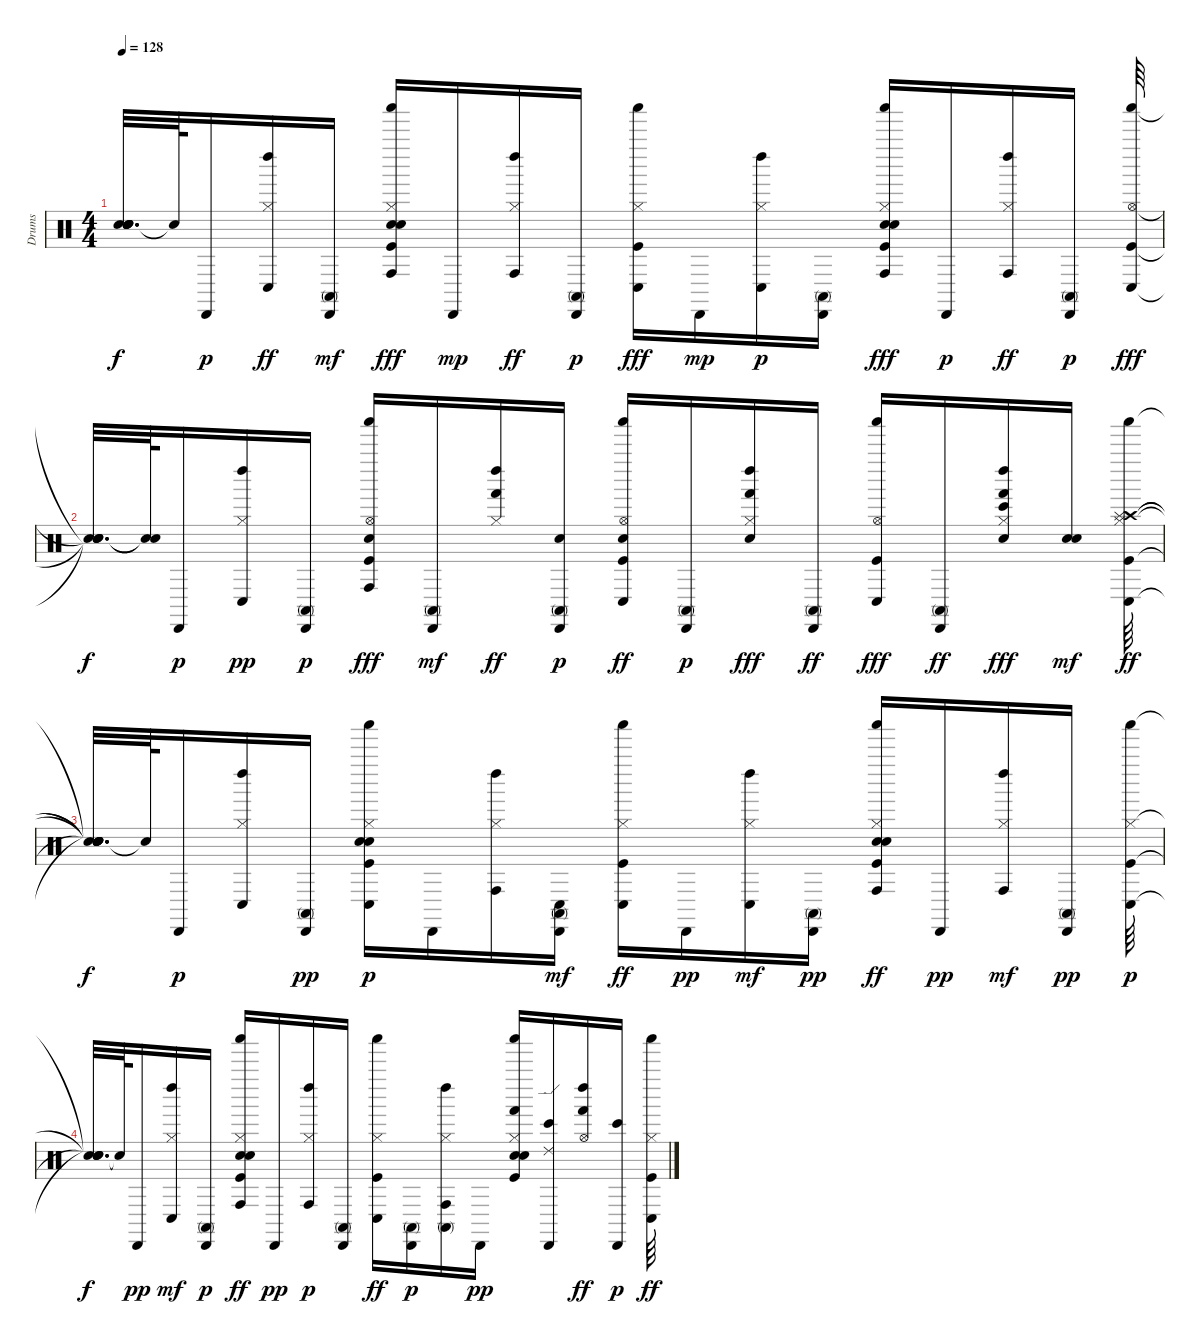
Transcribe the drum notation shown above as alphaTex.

\track ("Drums" "Drums") {instrument percussion}
\staff {score}
\articulation defaults
\ts (4 4)
\tempo 128
\clef neutral
\ks c
("Snare (hit)"{t} "Snare (hit)"{t} "Snare (hit)"{t} "Snare (hit)"{t} "Snare (hit)"{t}).32{d dy f} "Snare (hit)"{t}.64 "Cabasa (hit)".16{dy p} ("Hi-Hat (closed)" "Left Maraca (hit)" "Conga low (hit)").16{dy ff} ("Cabasa (hit)" "Conga high (mute)").16{dy mf} ("Kick (hit)" "Electric Snare (hit)" "Hand Clap (hit)" "Hi-Hat (closed)" "Shaker (hit)" "Conga high (hit)").16{dy fff} "Cabasa (hit)".16{dy mp} ("Hi-Hat (closed)" "Left Maraca (hit)" "Conga high (hit)").16{dy ff} ("Cabasa (hit)" "Conga high (mute)").16{dy p} ("Kick (hit)" "Hi-Hat (closed)" "Shaker (hit)" "Conga low (hit)").16{dy fff} "Cabasa (hit)".16{dy mp} ("Hi-Hat (closed)" "Left Maraca (hit)" "Conga low (hit)").16{dy p} ("Cabasa (hit)" "Conga high (mute)").16 ("Kick (hit)" "Electric Snare (hit)" "Hand Clap (hit)" "Hi-Hat (closed)" "Shaker (hit)" "Conga high (hit)").16{dy fff} "Cabasa (hit)".16{dy p} ("Hi-Hat (closed)" "Left Maraca (hit)" "Conga high (hit)").16{dy ff} ("Cabasa (hit)" "Conga high (mute)").16{dy p} ("Kick (hit)" "Hi-Hat (open)" "Shaker (hit)" "Conga low (hit)").64{dy fff} |
("Snare (hit)"{t} "Snare (hit)"{t} "Snare (hit)"{t} "Snare (hit)"{t}).32{d dy f} ("Snare (hit)"{t} "Snare (hit)"{t}).64 "Cabasa (hit)".16{dy p} ("Hi-Hat (closed)" "Left Maraca (hit)" "Conga low (hit)").16{dy pp} ("Cabasa (hit)" "Conga high (mute)").16{dy p} ("Kick (hit)" "Electric Snare (hit)" "Hi-Hat (open)" "Shaker (hit)" "Conga high (hit)").16{dy fff} ("Cabasa (hit)" "Conga high (mute)").16{dy mf} ("Hi-Hat (closed)" "Left Maraca (hit)" "Hand (hit)").16{dy ff} ("Electric Snare (hit)" "Cabasa (hit)" "Conga high (mute)").16{dy p} ("Kick (hit)" "Electric Snare (hit)" "Hi-Hat (open)" "Shaker (hit)" "Conga low (hit)").16{dy ff} ("Cabasa (hit)" "Conga high (mute)").16{dy p} ("Electric Snare (hit)" "Hi-Hat (closed)" "Left Maraca (hit)" "Hand (hit)").16{dy fff} ("Cabasa (hit)" "Conga high (mute)").16{dy ff} ("Kick (hit)" "Hi-Hat (open)" "Shaker (hit)" "Conga low (hit)").16{dy fff} ("Cabasa (hit)" "Conga high (mute)").16{dy ff} ("Electric Snare (hit)" "Hi-Hat (closed)" "Left Maraca (hit)" "Hand (hit)" "Bongo High (hit)").16{dy fff} ("Electric Snare (hit)" "Snare (hit) 2").16{dy mf} ("Kick (hit)" "Hi-Hat (closed)" "Crash high (hit)" "Splash (hit)" "Shaker (hit)" "Conga low (hit)").64{dy ff} |
("Snare (hit)"{t} "Snare (hit)"{t} "Snare (hit)"{t} "Snare (hit)"{t} "Snare (hit)"{t} "Snare (hit)"{t}).32{d dy f} "Snare (hit)"{t}.64 "Cabasa (hit)".16{dy p} ("Hi-Hat (closed)" "Left Maraca (hit)" "Conga low (hit)").16 ("Cabasa (hit)" "Conga high (mute)").16{dy pp} ("Kick (hit)" "Electric Snare (hit)" "Hand Clap (hit)" "Hi-Hat (closed)" "Shaker (hit)" "Conga low (hit)").16{dy p} "Cabasa (hit)".16 ("Hi-Hat (closed)" "Left Maraca (hit)" "Conga high (hit)").16 ("Cabasa (hit)" "Conga high (mute)" "Conga low (hit)").16{dy mf} ("Kick (hit)" "Hi-Hat (closed)" "Shaker (hit)" "Conga low (hit)").16{dy ff} "Cabasa (hit)".16{dy pp} ("Hi-Hat (closed)" "Left Maraca (hit)" "Conga low (hit)").16{dy mf} ("Cabasa (hit)" "Conga high (mute)").16{dy pp} ("Kick (hit)" "Electric Snare (hit)" "Hand Clap (hit)" "Hi-Hat (closed)" "Shaker (hit)" "Conga high (hit)").16{dy ff} "Cabasa (hit)".16{dy pp} ("Hi-Hat (closed)" "Left Maraca (hit)" "Conga high (hit)").16{dy mf} ("Cabasa (hit)" "Conga high (mute)").16{dy pp} ("Kick (hit)" "Hi-Hat (closed)" "Shaker (hit)" "Conga low (hit)").64{dy p} |
("Snare (hit)"{t} "Snare (hit)"{t} "Snare (hit)"{t} "Snare (hit)"{t}).32{d dy f} "Snare (hit)"{t}.64 "Cabasa (hit)".16{dy pp} ("Hi-Hat (closed)" "Left Maraca (hit)" "Conga low (hit)").16{dy mf} ("Cabasa (hit)" "Conga high (mute)").16{dy p} ("Kick (hit)" "Electric Snare (hit)" "Hand Clap (hit)" "Hi-Hat (closed)" "Shaker (hit)" "Conga high (hit)").16{dy ff} "Cabasa (hit)".16{dy pp} ("Hi-Hat (closed)" "Left Maraca (hit)" "Conga high (hit)").16{dy p} ("Cabasa (hit)" "Conga high (mute)").16 ("Kick (hit)" "Hi-Hat (closed)" "Shaker (hit)" "Conga low (hit)").16{dy ff} ("Cabasa (hit)" "Conga high (mute)").16{dy p} ("Hi-Hat (closed)" "Left Maraca (hit)" "Conga high (hit)" "Conga high (mute)").16 "Cabasa (hit)".16{dy pp} ("Kick (hit)" "Electric Snare (hit)" "Hand Clap (hit)" "Hi-Hat (closed)" "Shaker (hit)" "Hand (hit)").16 ("Cabasa (hit)" "Bongo High (hit)" "Ride (edge) 2").16 ("Hi-Hat (open)" "Left Maraca (hit)" "Hand (hit)").16{dy ff} ("Cabasa (hit)" "Bongo High (hit)").16{dy p} ("Kick (hit)" "Hi-Hat (closed)" "Shaker (hit)" "Conga low (hit)").64{dy ff}
